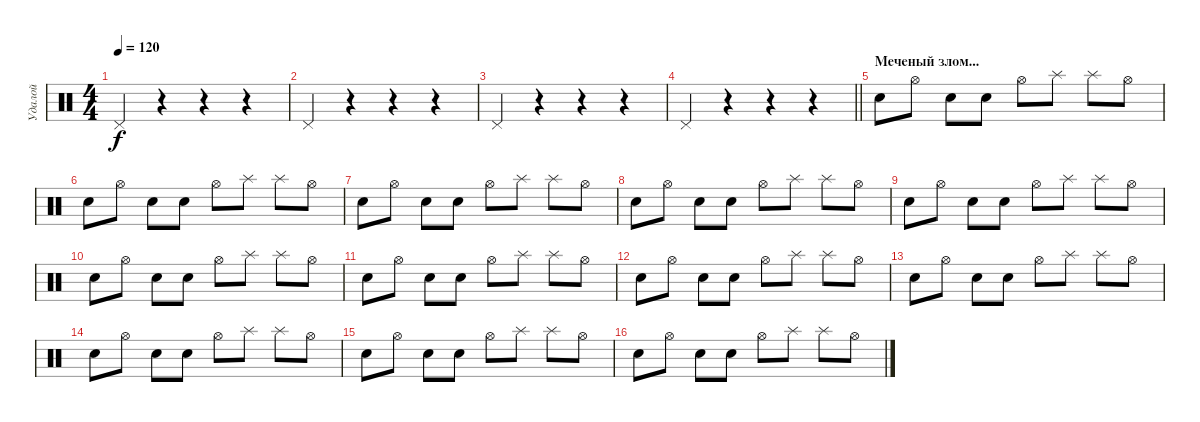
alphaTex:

\track ("Удалой" "Удалой") {instrument percussion}
\staff {score}
\articulation defaults
\ts (4 4)
\tempo 120
\clef neutral
\ks c "Pedal Hi-Hat (hit)".4{dy f}
r.4 r.4 r.4 |
"Pedal Hi-Hat (hit)".4 r.4 r.4 r.4 |
"Pedal Hi-Hat (hit)".4 r.4 r.4 r.4 |
\barLineRight lightlight "Pedal Hi-Hat (hit)".4
r.4 r.4 r.4 |
\section ("" "Меченый злом...")
"Snare (hit) 2".8 "Hi-Hat (open)".8 "Snare (hit) 2".8 "Snare (hit) 2".8 "Hi-Hat (open)".8 "Splash (hit)".8 "Splash (hit)".8 "Hi-Hat (open)".8 |
"Snare (hit) 2".8 "Hi-Hat (open)".8 "Snare (hit) 2".8 "Snare (hit) 2".8 "Hi-Hat (open)".8 "Splash (hit)".8 "Splash (hit)".8 "Hi-Hat (open)".8 |
"Snare (hit) 2".8 "Hi-Hat (open)".8 "Snare (hit) 2".8 "Snare (hit) 2".8 "Hi-Hat (open)".8 "Splash (hit)".8 "Splash (hit)".8 "Hi-Hat (open)".8 |
"Snare (hit) 2".8 "Hi-Hat (open)".8 "Snare (hit) 2".8 "Snare (hit) 2".8 "Hi-Hat (open)".8 "Splash (hit)".8 "Splash (hit)".8 "Hi-Hat (open)".8 |
"Snare (hit) 2".8 "Hi-Hat (open)".8 "Snare (hit) 2".8 "Snare (hit) 2".8 "Hi-Hat (open)".8 "Splash (hit)".8 "Splash (hit)".8 "Hi-Hat (open)".8 |
"Snare (hit) 2".8 "Hi-Hat (open)".8 "Snare (hit) 2".8 "Snare (hit) 2".8 "Hi-Hat (open)".8 "Splash (hit)".8 "Splash (hit)".8 "Hi-Hat (open)".8 |
"Snare (hit) 2".8 "Hi-Hat (open)".8 "Snare (hit) 2".8 "Snare (hit) 2".8 "Hi-Hat (open)".8 "Splash (hit)".8 "Splash (hit)".8 "Hi-Hat (open)".8 |
"Snare (hit) 2".8 "Hi-Hat (open)".8 "Snare (hit) 2".8 "Snare (hit) 2".8 "Hi-Hat (open)".8 "Splash (hit)".8 "Splash (hit)".8 "Hi-Hat (open)".8 |
"Snare (hit) 2".8 "Hi-Hat (open)".8 "Snare (hit) 2".8 "Snare (hit) 2".8 "Hi-Hat (open)".8 "Splash (hit)".8 "Splash (hit)".8 "Hi-Hat (open)".8 |
"Snare (hit) 2".8 "Hi-Hat (open)".8 "Snare (hit) 2".8 "Snare (hit) 2".8 "Hi-Hat (open)".8 "Splash (hit)".8 "Splash (hit)".8 "Hi-Hat (open)".8 |
"Snare (hit) 2".8 "Hi-Hat (open)".8 "Snare (hit) 2".8 "Snare (hit) 2".8 "Hi-Hat (open)".8 "Splash (hit)".8 "Splash (hit)".8 "Hi-Hat (open)".8 |
"Snare (hit) 2".8 "Hi-Hat (open)".8 "Snare (hit) 2".8 "Snare (hit) 2".8 "Hi-Hat (open)".8 "Splash (hit)".8 "Splash (hit)".8 "Hi-Hat (open)".8
